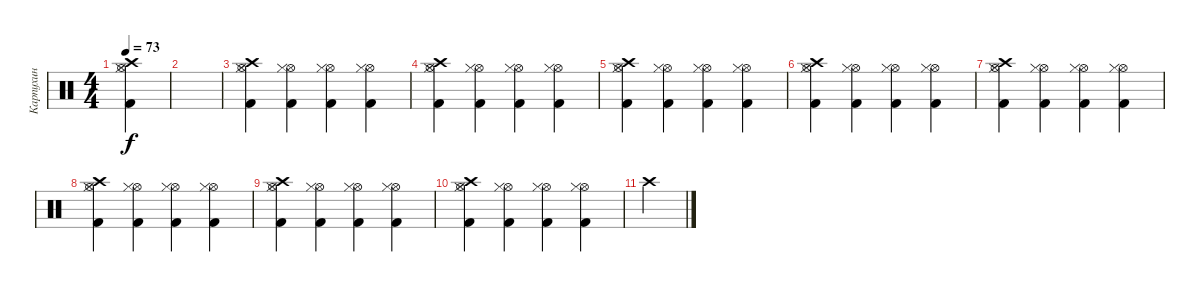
\track ("Карпухин" "Карпухин") {instrument percussion}
\staff {score}
\articulation defaults
\ts (4 4)
\tempo 73
\clef neutral
\ks c
("Kick (hit) 2" "Hi-Hat (open)" "Hi-Hat (closed)" "Crash high (hit)").4{dy f} |
|
("Kick (hit) 2" "Hi-Hat (open)" "Hi-Hat (closed)" "Crash high (hit)").4 ("Kick (hit) 2" "Hi-Hat (open)" "Hi-Hat (closed)").4 ("Kick (hit) 2" "Hi-Hat (open)" "Hi-Hat (closed)").4 ("Kick (hit) 2" "Hi-Hat (open)" "Hi-Hat (closed)").4 |
("Kick (hit) 2" "Hi-Hat (open)" "Hi-Hat (closed)" "Crash high (hit)").4 ("Kick (hit) 2" "Hi-Hat (open)" "Hi-Hat (closed)").4 ("Kick (hit) 2" "Hi-Hat (open)" "Hi-Hat (closed)").4 ("Kick (hit) 2" "Hi-Hat (open)" "Hi-Hat (closed)").4 |
("Kick (hit) 2" "Hi-Hat (open)" "Hi-Hat (closed)" "Crash high (hit)").4 ("Kick (hit) 2" "Hi-Hat (open)" "Hi-Hat (closed)").4 ("Kick (hit) 2" "Hi-Hat (open)" "Hi-Hat (closed)").4 ("Kick (hit) 2" "Hi-Hat (open)" "Hi-Hat (closed)").4 |
("Kick (hit) 2" "Hi-Hat (open)" "Hi-Hat (closed)" "Crash high (hit)").4 ("Kick (hit) 2" "Hi-Hat (open)" "Hi-Hat (closed)").4 ("Kick (hit) 2" "Hi-Hat (open)" "Hi-Hat (closed)").4 ("Kick (hit) 2" "Hi-Hat (open)" "Hi-Hat (closed)").4 |
("Kick (hit) 2" "Hi-Hat (open)" "Hi-Hat (closed)" "Crash high (hit)").4 ("Kick (hit) 2" "Hi-Hat (open)" "Hi-Hat (closed)").4 ("Kick (hit) 2" "Hi-Hat (open)" "Hi-Hat (closed)").4 ("Kick (hit) 2" "Hi-Hat (open)" "Hi-Hat (closed)").4 |
("Kick (hit) 2" "Hi-Hat (open)" "Hi-Hat (closed)" "Crash high (hit)").4 ("Kick (hit) 2" "Hi-Hat (open)" "Hi-Hat (closed)").4 ("Kick (hit) 2" "Hi-Hat (open)" "Hi-Hat (closed)").4 ("Kick (hit) 2" "Hi-Hat (open)" "Hi-Hat (closed)").4 |
("Kick (hit) 2" "Hi-Hat (open)" "Hi-Hat (closed)" "Crash high (hit)").4 ("Kick (hit) 2" "Hi-Hat (open)" "Hi-Hat (closed)").4 ("Kick (hit) 2" "Hi-Hat (open)" "Hi-Hat (closed)").4 ("Kick (hit) 2" "Hi-Hat (open)" "Hi-Hat (closed)").4 |
("Kick (hit) 2" "Hi-Hat (open)" "Hi-Hat (closed)" "Crash high (hit)").4 ("Kick (hit) 2" "Hi-Hat (open)" "Hi-Hat (closed)").4 ("Kick (hit) 2" "Hi-Hat (open)" "Hi-Hat (closed)").4 ("Kick (hit) 2" "Hi-Hat (open)" "Hi-Hat (closed)").4 |
"Crash high (hit)".4
